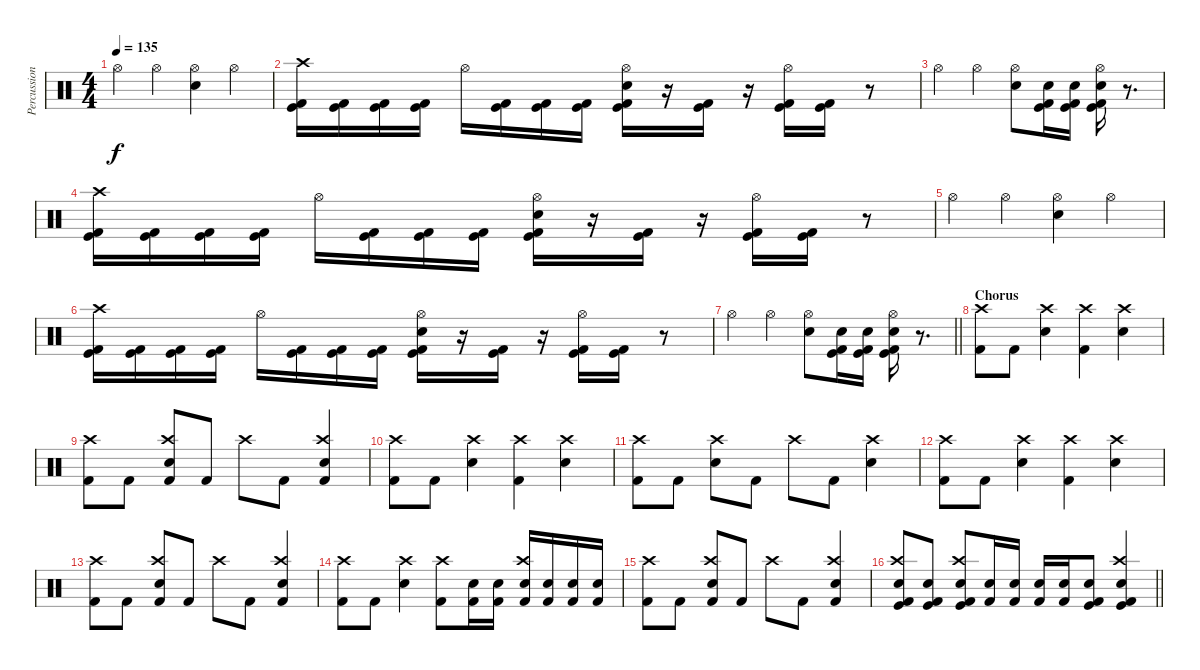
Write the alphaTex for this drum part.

\track ("Percussion" "Percussion") {instrument percussion}
\staff {score}
\articulation defaults
\ts (4 4)
\tempo 135
\clef neutral
\ks c "Hi-Hat (open)".4{dy f} "Hi-Hat (open)".4
("Hi-Hat (open)" "Electric Snare (hit)").4 "Hi-Hat (open)".4 |
("Crash high (hit)" "Kick (hit)" "Kick (hit) 2").16 ("Kick (hit)" "Kick (hit) 2").16 ("Kick (hit)" "Kick (hit) 2").16 ("Kick (hit)" "Kick (hit) 2").16 "Hi-Hat (open)".16 ("Kick (hit)" "Kick (hit) 2").16 ("Kick (hit)" "Kick (hit) 2").16 ("Kick (hit)" "Kick (hit) 2").16 ("Hi-Hat (open)" "Electric Snare (hit)" "Kick (hit)" "Kick (hit) 2").16 r.16 ("Kick (hit)" "Kick (hit) 2").16 r.16 ("Hi-Hat (open)" "Kick (hit)" "Kick (hit) 2").16 ("Kick (hit)" "Kick (hit) 2").16 r.8 |
"Hi-Hat (open)".4 "Hi-Hat (open)".4 ("Hi-Hat (open)" "Electric Snare (hit)").8 ("Electric Snare (hit)" "Kick (hit)" "Kick (hit) 2").16 ("Electric Snare (hit)" "Kick (hit)" "Kick (hit) 2").16 ("Hi-Hat (open)" "Electric Snare (hit)" "Kick (hit)" "Kick (hit) 2").16 r.8{d} |
("Crash high (hit)" "Kick (hit)" "Kick (hit) 2").16 ("Kick (hit)" "Kick (hit) 2").16 ("Kick (hit)" "Kick (hit) 2").16 ("Kick (hit)" "Kick (hit) 2").16 "Hi-Hat (open)".16 ("Kick (hit)" "Kick (hit) 2").16 ("Kick (hit)" "Kick (hit) 2").16 ("Kick (hit)" "Kick (hit) 2").16 ("Hi-Hat (open)" "Electric Snare (hit)" "Kick (hit)" "Kick (hit) 2").16 r.16 ("Kick (hit)" "Kick (hit) 2").16 r.16 ("Hi-Hat (open)" "Kick (hit)" "Kick (hit) 2").16 ("Kick (hit)" "Kick (hit) 2").16 r.8 |
"Hi-Hat (open)".4 "Hi-Hat (open)".4 ("Hi-Hat (open)" "Electric Snare (hit)").4 "Hi-Hat (open)".4 |
("Crash high (hit)" "Kick (hit)" "Kick (hit) 2").16 ("Kick (hit)" "Kick (hit) 2").16 ("Kick (hit)" "Kick (hit) 2").16 ("Kick (hit)" "Kick (hit) 2").16 "Hi-Hat (open)".16 ("Kick (hit)" "Kick (hit) 2").16 ("Kick (hit)" "Kick (hit) 2").16 ("Kick (hit)" "Kick (hit) 2").16 ("Hi-Hat (open)" "Electric Snare (hit)" "Kick (hit)" "Kick (hit) 2").16 r.16 ("Kick (hit)" "Kick (hit) 2").16 r.16 ("Hi-Hat (open)" "Kick (hit)" "Kick (hit) 2").16 ("Kick (hit)" "Kick (hit) 2").16 r.8 |
\barLineRight lightlight "Hi-Hat (open)".4 "Hi-Hat (open)".4
("Hi-Hat (open)" "Electric Snare (hit)").8 ("Electric Snare (hit)" "Kick (hit)" "Kick (hit) 2").16 ("Electric Snare (hit)" "Kick (hit)" "Kick (hit) 2").16 ("Hi-Hat (open)" "Electric Snare (hit)" "Kick (hit)" "Kick (hit) 2").16 r.8{d} |
\section ("" "Chorus")
("Crash high (hit)" "Kick (hit) 2").8 "Kick (hit) 2".8 ("Crash high (hit)" "Electric Snare (hit)").4 ("Crash high (hit)" "Kick (hit) 2").4 ("Crash high (hit)" "Electric Snare (hit)").4 |
("Crash high (hit)" "Kick (hit) 2").8 "Kick (hit) 2".8 ("Crash high (hit)" "Electric Snare (hit)" "Kick (hit) 2").8 "Kick (hit) 2".8 "Crash high (hit)".8 "Kick (hit) 2".8 ("Crash high (hit)" "Electric Snare (hit)" "Kick (hit) 2").4 |
("Crash high (hit)" "Kick (hit) 2").8 "Kick (hit) 2".8 ("Crash high (hit)" "Electric Snare (hit)").4 ("Crash high (hit)" "Kick (hit) 2").4 ("Crash high (hit)" "Electric Snare (hit)").4 |
("Crash high (hit)" "Kick (hit) 2").8 "Kick (hit) 2".8 ("Crash high (hit)" "Electric Snare (hit)").8 "Kick (hit) 2".8 "Crash high (hit)".8 "Kick (hit) 2".8 ("Crash high (hit)" "Electric Snare (hit)").4 |
("Crash high (hit)" "Kick (hit) 2").8 "Kick (hit) 2".8 ("Crash high (hit)" "Electric Snare (hit)").4 ("Crash high (hit)" "Kick (hit) 2").4 ("Crash high (hit)" "Electric Snare (hit)").4 |
("Crash high (hit)" "Kick (hit) 2").8 "Kick (hit) 2".8 ("Crash high (hit)" "Electric Snare (hit)" "Kick (hit) 2").8 "Kick (hit) 2".8 "Crash high (hit)".8 "Kick (hit) 2".8 ("Crash high (hit)" "Electric Snare (hit)" "Kick (hit) 2").4 |
("Crash high (hit)" "Kick (hit) 2").8 "Kick (hit) 2".8 ("Crash high (hit)" "Electric Snare (hit)").4 ("Crash high (hit)" "Kick (hit) 2").8 ("Electric Snare (hit)" "Kick (hit) 2").16 ("Electric Snare (hit)" "Kick (hit) 2").16 ("Crash high (hit)" "Electric Snare (hit)" "Kick (hit) 2").16 ("Electric Snare (hit)" "Kick (hit) 2").16 ("Electric Snare (hit)" "Kick (hit) 2").16 ("Electric Snare (hit)" "Kick (hit) 2").16 |
("Crash high (hit)" "Kick (hit) 2").8 "Kick (hit) 2".8 ("Crash high (hit)" "Electric Snare (hit)" "Kick (hit) 2").8 "Kick (hit) 2".8 "Crash high (hit)".8 "Kick (hit) 2".8 ("Crash high (hit)" "Electric Snare (hit)" "Kick (hit) 2").4 |
\barLineRight lightlight
("Crash high (hit)" "Electric Snare (hit)" "Kick (hit)" "Kick (hit) 2").8 ("Electric Snare (hit)" "Kick (hit)" "Kick (hit) 2").8 ("Crash high (hit)" "Electric Snare (hit)" "Kick (hit)" "Kick (hit) 2").8 ("Electric Snare (hit)" "Kick (hit) 2").16 ("Electric Snare (hit)" "Kick (hit) 2").16 ("Electric Snare (hit)" "Kick (hit) 2").16 ("Electric Snare (hit)" "Kick (hit) 2").16 ("Electric Snare (hit)" "Kick (hit)" "Kick (hit) 2").8 ("Crash high (hit)" "Electric Snare (hit)" "Kick (hit)" "Kick (hit) 2").4
